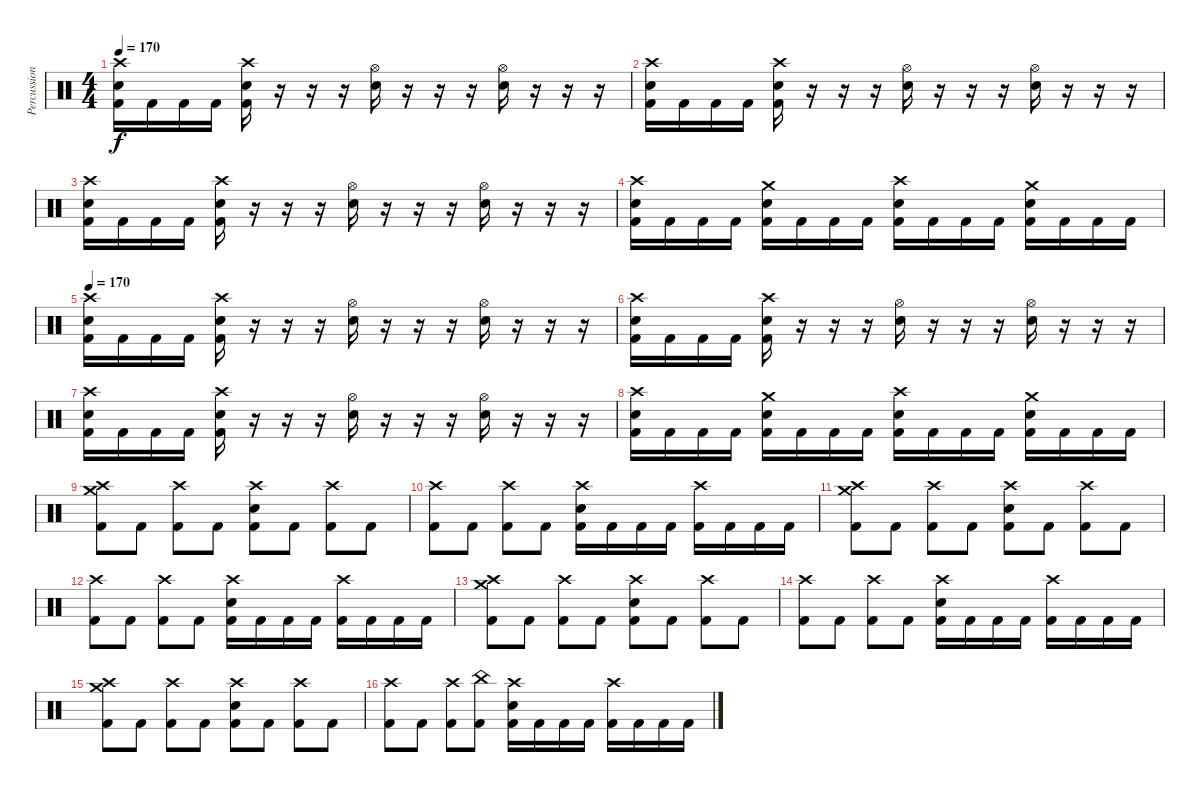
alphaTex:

\track ("Percussion" "Percussion") {instrument percussion}
\staff {score}
\articulation defaults
\ts (4 4)
\tempo 170
\clef neutral
\ks c
("Crash high (hit)" "Snare (hit) 2" "Kick (hit) 2").16{dy f} "Kick (hit) 2".16 "Kick (hit) 2".16 "Kick (hit) 2".16 ("Crash high (hit)" "Snare (hit) 2" "Kick (hit) 2").16 r.16 r.16 r.16 ("Hi-Hat (open)" "Snare (hit) 2").16 r.16 r.16 r.16 ("Hi-Hat (open)" "Snare (hit) 2").16 r.16 r.16 r.16 |
("Crash high (hit)" "Snare (hit) 2" "Kick (hit) 2").16 "Kick (hit) 2".16 "Kick (hit) 2".16 "Kick (hit) 2".16 ("Crash high (hit)" "Snare (hit) 2" "Kick (hit) 2").16 r.16 r.16 r.16 ("Hi-Hat (open)" "Snare (hit) 2").16 r.16 r.16 r.16 ("Hi-Hat (open)" "Snare (hit) 2").16 r.16 r.16 r.16 |
("Crash high (hit)" "Snare (hit) 2" "Kick (hit) 2").16 "Kick (hit) 2".16 "Kick (hit) 2".16 "Kick (hit) 2".16 ("Crash high (hit)" "Snare (hit) 2" "Kick (hit) 2").16 r.16 r.16 r.16 ("Hi-Hat (open)" "Snare (hit) 2").16 r.16 r.16 r.16 ("Hi-Hat (open)" "Snare (hit) 2").16 r.16 r.16 r.16 |
("Crash high (hit)" "Snare (hit) 2" "Kick (hit) 2").16 "Kick (hit) 2".16 "Kick (hit) 2".16 "Kick (hit) 2".16 ("Crash medium (hit)" "Snare (hit) 2" "Kick (hit) 2").16 "Kick (hit) 2".16 "Kick (hit) 2".16 "Kick (hit) 2".16 ("Crash high (hit)" "Snare (hit) 2" "Kick (hit) 2").16 "Kick (hit) 2".16 "Kick (hit) 2".16 "Kick (hit) 2".16 ("Crash medium (hit)" "Snare (hit) 2" "Kick (hit) 2").16 "Kick (hit) 2".16 "Kick (hit) 2".16 "Kick (hit) 2".16 |
\tempo 170
("Crash high (hit)" "Snare (hit) 2" "Kick (hit) 2").16 "Kick (hit) 2".16 "Kick (hit) 2".16 "Kick (hit) 2".16 ("Crash high (hit)" "Snare (hit) 2" "Kick (hit) 2").16 r.16 r.16 r.16 ("Hi-Hat (open)" "Snare (hit) 2").16 r.16 r.16 r.16 ("Hi-Hat (open)" "Snare (hit) 2").16 r.16 r.16 r.16 |
("Crash high (hit)" "Snare (hit) 2" "Kick (hit) 2").16 "Kick (hit) 2".16 "Kick (hit) 2".16 "Kick (hit) 2".16 ("Crash high (hit)" "Snare (hit) 2" "Kick (hit) 2").16 r.16 r.16 r.16 ("Hi-Hat (open)" "Snare (hit) 2").16 r.16 r.16 r.16 ("Hi-Hat (open)" "Snare (hit) 2").16 r.16 r.16 r.16 |
("Crash high (hit)" "Snare (hit) 2" "Kick (hit) 2").16 "Kick (hit) 2".16 "Kick (hit) 2".16 "Kick (hit) 2".16 ("Crash high (hit)" "Snare (hit) 2" "Kick (hit) 2").16 r.16 r.16 r.16 ("Hi-Hat (open)" "Snare (hit) 2").16 r.16 r.16 r.16 ("Hi-Hat (open)" "Snare (hit) 2").16 r.16 r.16 r.16 |
("Crash high (hit)" "Snare (hit) 2" "Kick (hit) 2").16 "Kick (hit) 2".16 "Kick (hit) 2".16 "Kick (hit) 2".16 ("Crash medium (hit)" "Snare (hit) 2" "Kick (hit) 2").16 "Kick (hit) 2".16 "Kick (hit) 2".16 "Kick (hit) 2".16 ("Crash high (hit)" "Snare (hit) 2" "Kick (hit) 2").16 "Kick (hit) 2".16 "Kick (hit) 2".16 "Kick (hit) 2".16 ("Crash medium (hit)" "Snare (hit) 2" "Kick (hit) 2").16 "Kick (hit) 2".16 "Kick (hit) 2".16 "Kick (hit) 2".16 |
("Crash medium (hit)" "Crash high (hit)" "Kick (hit) 2").8 "Kick (hit) 2".8 ("Crash high (hit)" "Kick (hit) 2").8 "Kick (hit) 2".8 ("Snare (hit) 2" "Crash high (hit)" "Kick (hit) 2").8 "Kick (hit) 2".8 ("Crash high (hit)" "Kick (hit) 2").8 "Kick (hit) 2".8 |
("Crash high (hit)" "Kick (hit) 2").8 "Kick (hit) 2".8 ("Crash high (hit)" "Kick (hit) 2").8 "Kick (hit) 2".8 ("Snare (hit) 2" "Crash high (hit)" "Kick (hit) 2").16 "Kick (hit) 2".16 "Kick (hit) 2".16 "Kick (hit) 2".16 ("Crash high (hit)" "Kick (hit) 2").16 "Kick (hit) 2".16 "Kick (hit) 2".16 "Kick (hit) 2".16 |
("Crash medium (hit)" "Crash high (hit)" "Kick (hit) 2").8 "Kick (hit) 2".8 ("Crash high (hit)" "Kick (hit) 2").8 "Kick (hit) 2".8 ("Snare (hit) 2" "Crash high (hit)" "Kick (hit) 2").8 "Kick (hit) 2".8 ("Crash high (hit)" "Kick (hit) 2").8 "Kick (hit) 2".8 |
("Crash high (hit)" "Kick (hit) 2").8 "Kick (hit) 2".8 ("Crash high (hit)" "Kick (hit) 2").8 "Kick (hit) 2".8 ("Snare (hit) 2" "Crash high (hit)" "Kick (hit) 2").16 "Kick (hit) 2".16 "Kick (hit) 2".16 "Kick (hit) 2".16 ("Crash high (hit)" "Kick (hit) 2").16 "Kick (hit) 2".16 "Kick (hit) 2".16 "Kick (hit) 2".16 |
("Crash medium (hit)" "Crash high (hit)" "Kick (hit) 2").8 "Kick (hit) 2".8 ("Crash high (hit)" "Kick (hit) 2").8 "Kick (hit) 2".8 ("Snare (hit) 2" "Crash high (hit)" "Kick (hit) 2").8 "Kick (hit) 2".8 ("Crash high (hit)" "Kick (hit) 2").8 "Kick (hit) 2".8 |
("Crash high (hit)" "Kick (hit) 2").8 "Kick (hit) 2".8 ("Crash high (hit)" "Kick (hit) 2").8 "Kick (hit) 2".8 ("Snare (hit) 2" "Crash high (hit)" "Kick (hit) 2").16 "Kick (hit) 2".16 "Kick (hit) 2".16 "Kick (hit) 2".16 ("Crash high (hit)" "Kick (hit) 2").16 "Kick (hit) 2".16 "Kick (hit) 2".16 "Kick (hit) 2".16 |
("Crash medium (hit)" "Crash high (hit)" "Kick (hit) 2").8 "Kick (hit) 2".8 ("Crash high (hit)" "Kick (hit) 2").8 "Kick (hit) 2".8 ("Snare (hit) 2" "Crash high (hit)" "Kick (hit) 2").8 "Kick (hit) 2".8 ("Crash high (hit)" "Kick (hit) 2").8 "Kick (hit) 2".8 |
("Crash high (hit)" "Kick (hit) 2").8 "Kick (hit) 2".8 ("Crash high (hit)" "Kick (hit) 2").8 ("China (hit)" "Kick (hit) 2").8 ("Snare (hit) 2" "Crash high (hit)" "Kick (hit) 2").16 "Kick (hit) 2".16 "Kick (hit) 2".16 "Kick (hit) 2".16 ("Crash high (hit)" "Kick (hit) 2").16 "Kick (hit) 2".16 "Kick (hit) 2".16 "Kick (hit) 2".16
